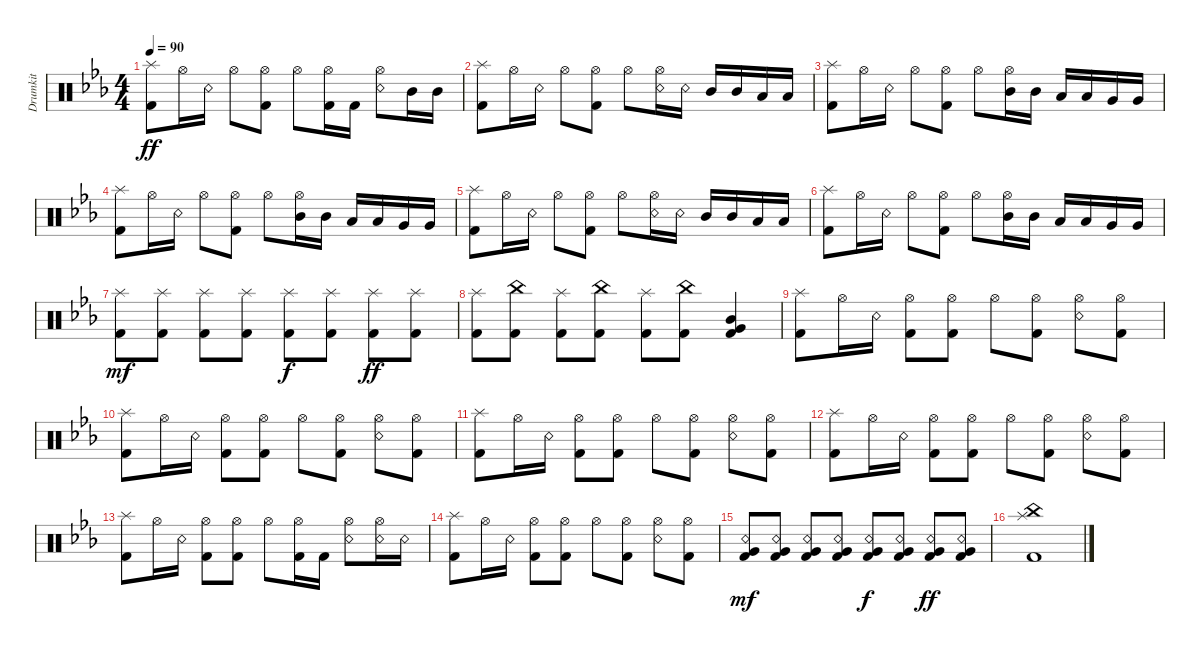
\track ("Drumkit" "Drumkit") {instrument percussion}
\staff {score}
\articulation defaults
\ts (4 4)
\tempo 90
\clef neutral
\ks cminor
("Splash (hit)" "Kick (hit) 2").8{dy ff} "Hi-Hat (open)".16 "Snare (rim shot)".16 "Hi-Hat (open)".8 ("Hi-Hat (open)" "Kick (hit) 2").8 "Hi-Hat (open)".8 ("Hi-Hat (open)" "Kick (hit) 2").16 "Kick (hit) 2".16 ("Hi-Hat (open)" "Snare (rim shot)").8 "Mid Tom (hit)".16 "Mid Tom (hit)".16 |
("Splash (hit)" "Kick (hit) 2").8 "Hi-Hat (open)".16 "Snare (rim shot)".16 "Hi-Hat (open)".8 ("Hi-Hat (open)" "Kick (hit) 2").8 "Hi-Hat (open)".8 ("Hi-Hat (open)" "Snare (rim shot)").16 "Snare (rim shot)".16 "Mid Tom (hit)".16 "Mid Tom (hit)".16 "Low Tom (hit)".16 "Low Tom (hit)".16 |
("Splash (hit)" "Kick (hit) 2").8 "Hi-Hat (open)".16 "Snare (rim shot)".16 "Hi-Hat (open)".8 ("Hi-Hat (open)" "Kick (hit) 2").8 "Hi-Hat (open)".8 ("Hi-Hat (open)" "Mid Tom (hit)").16 "Mid Tom (hit)".16 "Low Tom (hit)".16 "Low Tom (hit)".16 "Very Low Tom (hit)".16 "Very Low Tom (hit)".16 |
("Splash (hit)" "Kick (hit) 2").8 "Hi-Hat (open)".16 "Snare (rim shot)".16 "Hi-Hat (open)".8 ("Hi-Hat (open)" "Kick (hit) 2").8 "Hi-Hat (open)".8 ("Hi-Hat (open)" "Mid Tom (hit)").16 "Mid Tom (hit)".16 "Low Tom (hit)".16 "Low Tom (hit)".16 "Very Low Tom (hit)".16 "Very Low Tom (hit)".16 |
("Splash (hit)" "Kick (hit) 2").8 "Hi-Hat (open)".16 "Snare (rim shot)".16 "Hi-Hat (open)".8 ("Hi-Hat (open)" "Kick (hit) 2").8 "Hi-Hat (open)".8 ("Hi-Hat (open)" "Snare (rim shot)").16 "Snare (rim shot)".16 "Mid Tom (hit)".16 "Mid Tom (hit)".16 "Low Tom (hit)".16 "Low Tom (hit)".16 |
("Splash (hit)" "Kick (hit) 2").8 "Hi-Hat (open)".16 "Snare (rim shot)".16 "Hi-Hat (open)".8 ("Hi-Hat (open)" "Kick (hit) 2").8 "Hi-Hat (open)".8 ("Hi-Hat (open)" "Mid Tom (hit)").16 "Mid Tom (hit)".16 "Low Tom (hit)".16 "Low Tom (hit)".16 "Very Low Tom (hit)".16 "Very Low Tom (hit)".16 |
("Kick (hit) 2" "Splash (hit)").8{dy mf} ("Kick (hit) 2" "Splash (hit)").8 ("Kick (hit) 2" "Splash (hit)").8 ("Kick (hit) 2" "Splash (hit)").8 ("Kick (hit) 2" "Splash (hit)").8{dy f} ("Kick (hit) 2" "Splash (hit)").8 ("Kick (hit) 2" "Splash (hit)").8{dy ff} ("Kick (hit) 2" "Splash (hit)").8 |
("Kick (hit) 2" "Splash (hit)").8 ("Kick (hit) 2" "China (hit)").8 ("Kick (hit) 2" "Splash (hit)").8 ("Kick (hit) 2" "China (hit)").8 ("Kick (hit) 2" "Splash (hit)").8 ("Kick (hit) 2" "China (hit)").8 ("Very Low Tom (hit)" "Kick (hit) 2" "Mid Tom (hit)").4 |
("Kick (hit) 2" "Splash (hit)").8 "Hi-Hat (open)".16 "Snare (rim shot)".16 ("Hi-Hat (open)" "Kick (hit) 2").8 ("Hi-Hat (open)" "Kick (hit) 2").8 "Hi-Hat (open)".8 ("Hi-Hat (open)" "Kick (hit) 2").8 ("Hi-Hat (open)" "Snare (rim shot)").8 ("Hi-Hat (open)" "Kick (hit) 2").8 |
("Kick (hit) 2" "Splash (hit)").8 "Hi-Hat (open)".16 "Snare (rim shot)".16 ("Hi-Hat (open)" "Kick (hit) 2").8 ("Hi-Hat (open)" "Kick (hit) 2").8 "Hi-Hat (open)".8 ("Hi-Hat (open)" "Kick (hit) 2").8 ("Hi-Hat (open)" "Snare (rim shot)").8 ("Hi-Hat (open)" "Kick (hit) 2").8 |
("Kick (hit) 2" "Splash (hit)").8 "Hi-Hat (open)".16 "Snare (rim shot)".16 ("Hi-Hat (open)" "Kick (hit) 2").8 ("Hi-Hat (open)" "Kick (hit) 2").8 "Hi-Hat (open)".8 ("Hi-Hat (open)" "Kick (hit) 2").8 ("Hi-Hat (open)" "Snare (rim shot)").8 ("Hi-Hat (open)" "Kick (hit) 2").8 |
("Kick (hit) 2" "Splash (hit)").8 "Hi-Hat (open)".16 "Snare (rim shot)".16 ("Hi-Hat (open)" "Kick (hit) 2").8 ("Hi-Hat (open)" "Kick (hit) 2").8 "Hi-Hat (open)".8 ("Hi-Hat (open)" "Kick (hit) 2").8 ("Hi-Hat (open)" "Snare (rim shot)").8 ("Hi-Hat (open)" "Kick (hit) 2").8 |
("Kick (hit) 2" "Splash (hit)").8 "Hi-Hat (open)".16 "Snare (rim shot)".16 ("Hi-Hat (open)" "Kick (hit) 2").8 ("Hi-Hat (open)" "Kick (hit) 2").8 "Hi-Hat (open)".8 ("Hi-Hat (open)" "Kick (hit) 2").16 "Kick (hit) 2".16 ("Hi-Hat (open)" "Snare (rim shot)").8 ("Hi-Hat (open)" "Snare (rim shot)").16 "Snare (rim shot)".16 |
("Kick (hit) 2" "Splash (hit)").8 "Hi-Hat (open)".16 "Snare (rim shot)".16 ("Hi-Hat (open)" "Kick (hit) 2").8 ("Hi-Hat (open)" "Kick (hit) 2").8 "Hi-Hat (open)".8 ("Hi-Hat (open)" "Kick (hit) 2").8 ("Hi-Hat (open)" "Snare (rim shot)").8 ("Hi-Hat (open)" "Kick (hit) 2").8 |
("Kick (hit) 2" "Very Low Tom (hit)" "Snare (rim shot)").8{dy mf} ("Kick (hit) 2" "Very Low Tom (hit)" "Snare (rim shot)").8 ("Kick (hit) 2" "Very Low Tom (hit)" "Snare (rim shot)").8 ("Kick (hit) 2" "Very Low Tom (hit)" "Snare (rim shot)").8 ("Kick (hit) 2" "Very Low Tom (hit)" "Snare (rim shot)").8{dy f} ("Kick (hit) 2" "Very Low Tom (hit)" "Snare (rim shot)").8 ("Kick (hit) 2" "Very Low Tom (hit)" "Snare (rim shot)").8{dy ff} ("Kick (hit) 2" "Very Low Tom (hit)" "Snare (rim shot)").8 |
("Splash (hit)" "China (hit)" "Kick (hit) 2").1
